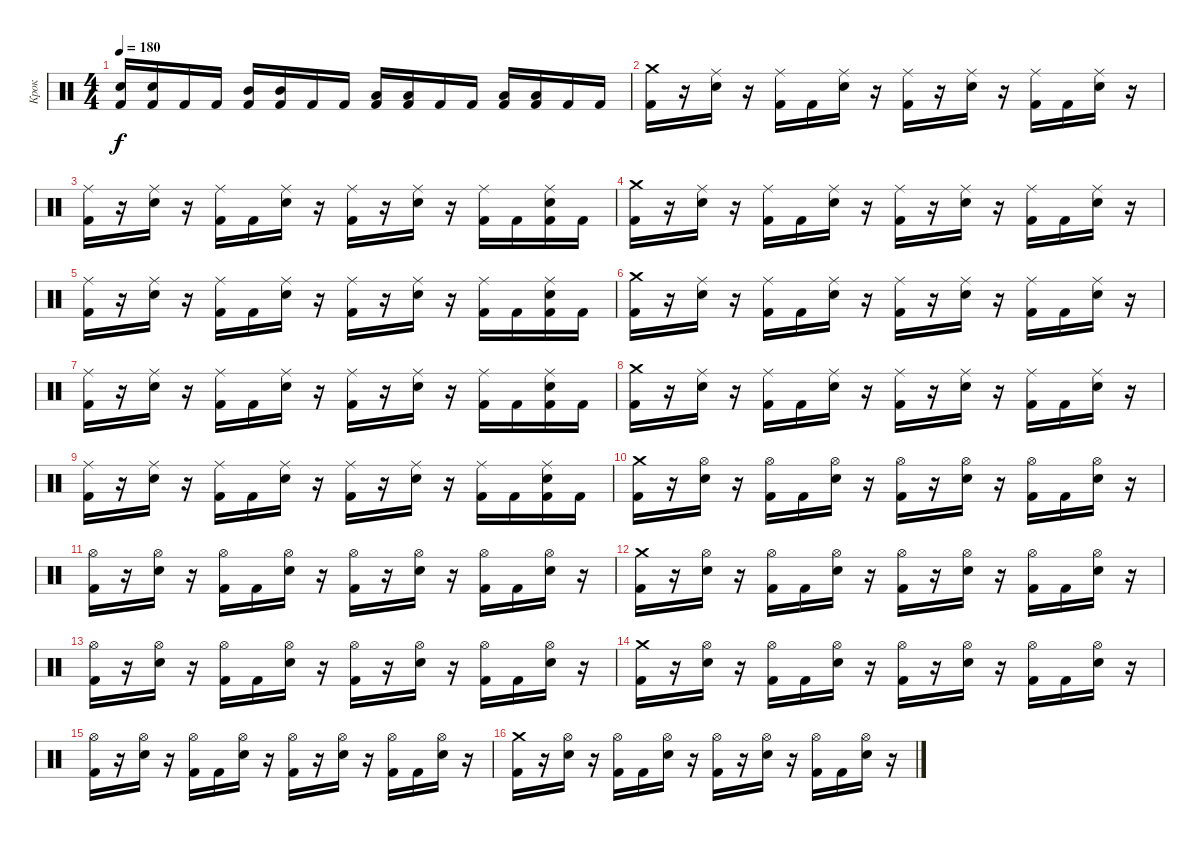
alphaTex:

\track ("Крок" "Крок") {instrument percussion}
\staff {score}
\articulation defaults
\ts (4 4)
\tempo 180
\clef neutral
\ks c
("Kick (hit) 2" "Electric Snare (hit)").16{dy f} ("Kick (hit) 2" "Electric Snare (hit)").16 "Kick (hit) 2".16 "Kick (hit) 2".16 ("Kick (hit) 2" "Mid Tom (hit)").16 ("Kick (hit) 2" "Mid Tom (hit)").16 "Kick (hit) 2".16 "Kick (hit) 2".16 ("Kick (hit) 2" "Low Tom (hit)").16 ("Kick (hit) 2" "Low Tom (hit)").16 "Kick (hit) 2".16 "Kick (hit) 2".16 ("Kick (hit) 2" "Low Floor Tom (hit)").16 ("Kick (hit) 2" "Low Floor Tom (hit)").16 "Kick (hit) 2".16 "Kick (hit) 2".16 |
("Kick (hit) 2" "Crash medium (hit)").16 r.16 ("Electric Snare (hit)" "Ride (middle)").16 r.16 ("Kick (hit) 2" "Ride (middle)").16 "Kick (hit) 2".16 ("Electric Snare (hit)" "Ride (middle)").16 r.16 ("Kick (hit) 2" "Ride (middle)").16 r.16 ("Electric Snare (hit)" "Ride (middle)").16 r.16 ("Kick (hit) 2" "Ride (middle)").16 "Kick (hit) 2".16 ("Electric Snare (hit)" "Ride (middle)").16 r.16 |
("Kick (hit) 2" "Ride (middle)").16 r.16 ("Electric Snare (hit)" "Ride (middle)").16 r.16 ("Kick (hit) 2" "Ride (middle)").16 "Kick (hit) 2".16 ("Electric Snare (hit)" "Ride (middle)").16 r.16 ("Kick (hit) 2" "Ride (middle)").16 r.16 ("Electric Snare (hit)" "Ride (middle)").16 r.16 ("Kick (hit) 2" "Ride (middle)").16 "Kick (hit) 2".16 ("Kick (hit) 2" "Electric Snare (hit)" "Ride (middle)").16 "Kick (hit) 2".16 |
("Kick (hit) 2" "Crash medium (hit)").16 r.16 ("Electric Snare (hit)" "Ride (middle)").16 r.16 ("Kick (hit) 2" "Ride (middle)").16 "Kick (hit) 2".16 ("Electric Snare (hit)" "Ride (middle)").16 r.16 ("Kick (hit) 2" "Ride (middle)").16 r.16 ("Electric Snare (hit)" "Ride (middle)").16 r.16 ("Kick (hit) 2" "Ride (middle)").16 "Kick (hit) 2".16 ("Electric Snare (hit)" "Ride (middle)").16 r.16 |
("Kick (hit) 2" "Ride (middle)").16 r.16 ("Electric Snare (hit)" "Ride (middle)").16 r.16 ("Kick (hit) 2" "Ride (middle)").16 "Kick (hit) 2".16 ("Electric Snare (hit)" "Ride (middle)").16 r.16 ("Kick (hit) 2" "Ride (middle)").16 r.16 ("Electric Snare (hit)" "Ride (middle)").16 r.16 ("Kick (hit) 2" "Ride (middle)").16 "Kick (hit) 2".16 ("Kick (hit) 2" "Electric Snare (hit)" "Ride (middle)").16 "Kick (hit) 2".16 |
("Kick (hit) 2" "Crash medium (hit)").16 r.16 ("Electric Snare (hit)" "Ride (middle)").16 r.16 ("Kick (hit) 2" "Ride (middle)").16 "Kick (hit) 2".16 ("Electric Snare (hit)" "Ride (middle)").16 r.16 ("Kick (hit) 2" "Ride (middle)").16 r.16 ("Electric Snare (hit)" "Ride (middle)").16 r.16 ("Kick (hit) 2" "Ride (middle)").16 "Kick (hit) 2".16 ("Electric Snare (hit)" "Ride (middle)").16 r.16 |
("Kick (hit) 2" "Ride (middle)").16 r.16 ("Electric Snare (hit)" "Ride (middle)").16 r.16 ("Kick (hit) 2" "Ride (middle)").16 "Kick (hit) 2".16 ("Electric Snare (hit)" "Ride (middle)").16 r.16 ("Kick (hit) 2" "Ride (middle)").16 r.16 ("Electric Snare (hit)" "Ride (middle)").16 r.16 ("Kick (hit) 2" "Ride (middle)").16 "Kick (hit) 2".16 ("Kick (hit) 2" "Electric Snare (hit)" "Ride (middle)").16 "Kick (hit) 2".16 |
("Kick (hit) 2" "Crash medium (hit)").16 r.16 ("Electric Snare (hit)" "Ride (middle)").16 r.16 ("Kick (hit) 2" "Ride (middle)").16 "Kick (hit) 2".16 ("Electric Snare (hit)" "Ride (middle)").16 r.16 ("Kick (hit) 2" "Ride (middle)").16 r.16 ("Electric Snare (hit)" "Ride (middle)").16 r.16 ("Kick (hit) 2" "Ride (middle)").16 "Kick (hit) 2".16 ("Electric Snare (hit)" "Ride (middle)").16 r.16 |
("Kick (hit) 2" "Ride (middle)").16 r.16 ("Electric Snare (hit)" "Ride (middle)").16 r.16 ("Kick (hit) 2" "Ride (middle)").16 "Kick (hit) 2".16 ("Electric Snare (hit)" "Ride (middle)").16 r.16 ("Kick (hit) 2" "Ride (middle)").16 r.16 ("Electric Snare (hit)" "Ride (middle)").16 r.16 ("Kick (hit) 2" "Ride (middle)").16 "Kick (hit) 2".16 ("Kick (hit) 2" "Electric Snare (hit)" "Ride (middle)").16 "Kick (hit) 2".16 |
("Kick (hit) 2" "Crash medium (hit)").16 r.16 ("Electric Snare (hit)" "Hi-Hat (open)").16 r.16 ("Kick (hit) 2" "Hi-Hat (open)").16 "Kick (hit) 2".16 ("Electric Snare (hit)" "Hi-Hat (open)").16 r.16 ("Kick (hit) 2" "Hi-Hat (open)").16 r.16 ("Electric Snare (hit)" "Hi-Hat (open)").16 r.16 ("Kick (hit) 2" "Hi-Hat (open)").16 "Kick (hit) 2".16 ("Electric Snare (hit)" "Hi-Hat (open)").16 r.16 |
("Kick (hit) 2" "Hi-Hat (open)").16 r.16 ("Electric Snare (hit)" "Hi-Hat (open)").16 r.16 ("Kick (hit) 2" "Hi-Hat (open)").16 "Kick (hit) 2".16 ("Electric Snare (hit)" "Hi-Hat (open)").16 r.16 ("Kick (hit) 2" "Hi-Hat (open)").16 r.16 ("Electric Snare (hit)" "Hi-Hat (open)").16 r.16 ("Kick (hit) 2" "Hi-Hat (open)").16 "Kick (hit) 2".16 ("Electric Snare (hit)" "Hi-Hat (open)").16 r.16 |
("Kick (hit) 2" "Crash medium (hit)").16 r.16 ("Electric Snare (hit)" "Hi-Hat (open)").16 r.16 ("Kick (hit) 2" "Hi-Hat (open)").16 "Kick (hit) 2".16 ("Electric Snare (hit)" "Hi-Hat (open)").16 r.16 ("Kick (hit) 2" "Hi-Hat (open)").16 r.16 ("Electric Snare (hit)" "Hi-Hat (open)").16 r.16 ("Kick (hit) 2" "Hi-Hat (open)").16 "Kick (hit) 2".16 ("Electric Snare (hit)" "Hi-Hat (open)").16 r.16 |
("Kick (hit) 2" "Hi-Hat (open)").16 r.16 ("Electric Snare (hit)" "Hi-Hat (open)").16 r.16 ("Kick (hit) 2" "Hi-Hat (open)").16 "Kick (hit) 2".16 ("Electric Snare (hit)" "Hi-Hat (open)").16 r.16 ("Kick (hit) 2" "Hi-Hat (open)").16 r.16 ("Electric Snare (hit)" "Hi-Hat (open)").16 r.16 ("Kick (hit) 2" "Hi-Hat (open)").16 "Kick (hit) 2".16 ("Electric Snare (hit)" "Hi-Hat (open)").16 r.16 |
("Kick (hit) 2" "Crash medium (hit)").16 r.16 ("Electric Snare (hit)" "Hi-Hat (open)").16 r.16 ("Kick (hit) 2" "Hi-Hat (open)").16 "Kick (hit) 2".16 ("Electric Snare (hit)" "Hi-Hat (open)").16 r.16 ("Kick (hit) 2" "Hi-Hat (open)").16 r.16 ("Electric Snare (hit)" "Hi-Hat (open)").16 r.16 ("Kick (hit) 2" "Hi-Hat (open)").16 "Kick (hit) 2".16 ("Electric Snare (hit)" "Hi-Hat (open)").16 r.16 |
("Kick (hit) 2" "Hi-Hat (open)").16 r.16 ("Electric Snare (hit)" "Hi-Hat (open)").16 r.16 ("Kick (hit) 2" "Hi-Hat (open)").16 "Kick (hit) 2".16 ("Electric Snare (hit)" "Hi-Hat (open)").16 r.16 ("Kick (hit) 2" "Hi-Hat (open)").16 r.16 ("Electric Snare (hit)" "Hi-Hat (open)").16 r.16 ("Kick (hit) 2" "Hi-Hat (open)").16 "Kick (hit) 2".16 ("Electric Snare (hit)" "Hi-Hat (open)").16 r.16 |
("Kick (hit) 2" "Crash medium (hit)").16 r.16 ("Electric Snare (hit)" "Hi-Hat (open)").16 r.16 ("Kick (hit) 2" "Hi-Hat (open)").16 "Kick (hit) 2".16 ("Electric Snare (hit)" "Hi-Hat (open)").16 r.16 ("Kick (hit) 2" "Hi-Hat (open)").16 r.16 ("Electric Snare (hit)" "Hi-Hat (open)").16 r.16 ("Kick (hit) 2" "Hi-Hat (open)").16 "Kick (hit) 2".16 ("Electric Snare (hit)" "Hi-Hat (open)").16 r.16
